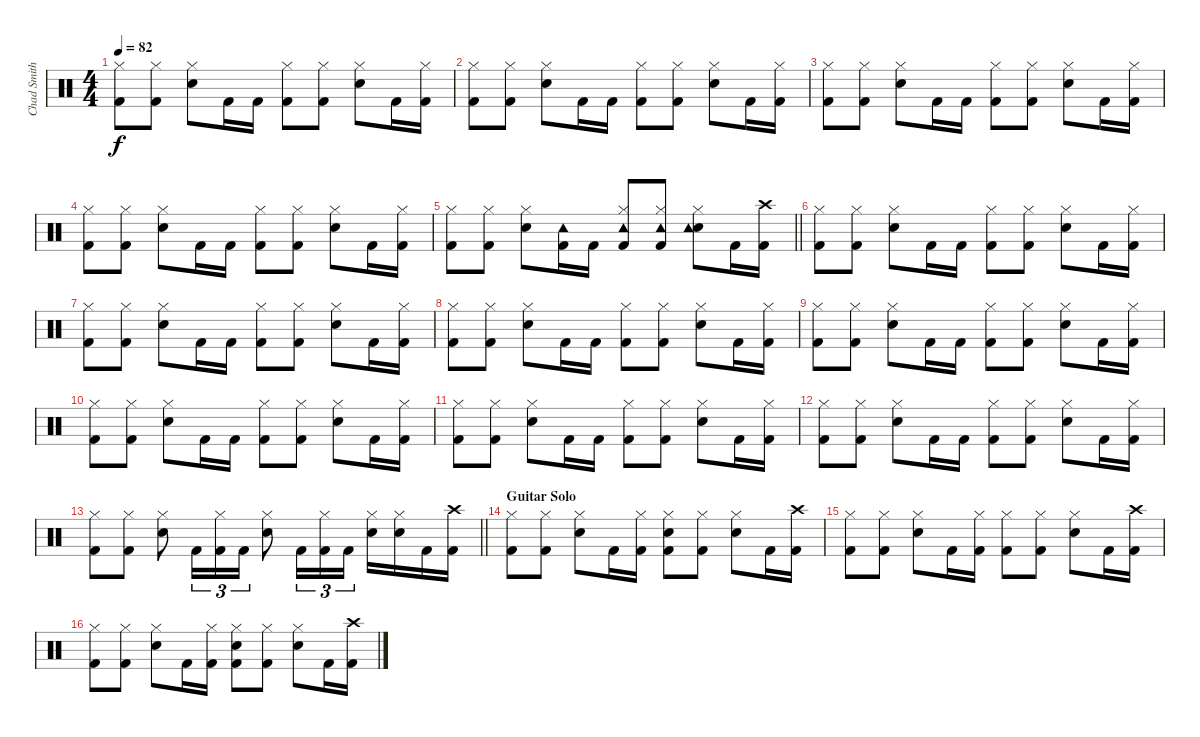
\track ("Chad Smith Drum" "Chad Smith") {instrument percussion}
\staff {score}
\articulation defaults
\ts (4 4)
\tempo 82
\clef neutral
\ks c
("Kick (hit) 2" "Hi-Hat (closed)").8{dy f} ("Kick (hit) 2" "Hi-Hat (closed)").8 ("Snare (hit) 2" "Hi-Hat (closed)").8 "Kick (hit) 2".16 "Kick (hit) 2".16 ("Kick (hit) 2" "Hi-Hat (closed)").8 ("Kick (hit) 2" "Hi-Hat (closed)").8 ("Snare (hit) 2" "Hi-Hat (closed)").8 "Kick (hit) 2".16 ("Kick (hit) 2" "Hi-Hat (closed)").16 |
("Kick (hit) 2" "Hi-Hat (closed)").8 ("Kick (hit) 2" "Hi-Hat (closed)").8 ("Snare (hit) 2" "Hi-Hat (closed)").8 "Kick (hit) 2".16 "Kick (hit) 2".16 ("Kick (hit) 2" "Hi-Hat (closed)").8 ("Kick (hit) 2" "Hi-Hat (closed)").8 ("Snare (hit) 2" "Hi-Hat (closed)").8 "Kick (hit) 2".16 ("Kick (hit) 2" "Hi-Hat (closed)").16 |
("Kick (hit) 2" "Hi-Hat (closed)").8 ("Kick (hit) 2" "Hi-Hat (closed)").8 ("Snare (hit) 2" "Hi-Hat (closed)").8 "Kick (hit) 2".16 "Kick (hit) 2".16 ("Kick (hit) 2" "Hi-Hat (closed)").8 ("Kick (hit) 2" "Hi-Hat (closed)").8 ("Snare (hit) 2" "Hi-Hat (closed)").8 "Kick (hit) 2".16 ("Kick (hit) 2" "Hi-Hat (closed)").16 |
("Kick (hit) 2" "Hi-Hat (closed)").8 ("Kick (hit) 2" "Hi-Hat (closed)").8 ("Snare (hit) 2" "Hi-Hat (closed)").8 "Kick (hit) 2".16 "Kick (hit) 2".16 ("Kick (hit) 2" "Hi-Hat (closed)").8 ("Kick (hit) 2" "Hi-Hat (closed)").8 ("Snare (hit) 2" "Hi-Hat (closed)").8 "Kick (hit) 2".16 ("Kick (hit) 2" "Hi-Hat (closed)").16 |
\barLineRight lightlight
("Kick (hit) 2" "Hi-Hat (closed)").8 ("Kick (hit) 2" "Hi-Hat (closed)").8 ("Snare (hit) 2" "Hi-Hat (closed)").8 ("Kick (hit) 2" "Tambourine (hit)").16 "Kick (hit) 2".16 ("Kick (hit) 2" "Hi-Hat (closed)" "Tambourine (hit)").8 ("Kick (hit) 2" "Hi-Hat (closed)" "Tambourine (hit)").8 ("Snare (hit) 2" "Hi-Hat (closed)" "Tambourine (hit)").8 "Kick (hit) 2".16 ("Kick (hit) 2" "Crash high (hit)").16 |
("Kick (hit) 2" "Hi-Hat (closed)").8 ("Kick (hit) 2" "Hi-Hat (closed)").8 ("Snare (hit) 2" "Hi-Hat (closed)").8 "Kick (hit) 2".16 "Kick (hit) 2".16 ("Kick (hit) 2" "Hi-Hat (closed)").8 ("Kick (hit) 2" "Hi-Hat (closed)").8 ("Snare (hit) 2" "Hi-Hat (closed)").8 "Kick (hit) 2".16 ("Kick (hit) 2" "Hi-Hat (closed)").16 |
("Kick (hit) 2" "Hi-Hat (closed)").8 ("Kick (hit) 2" "Hi-Hat (closed)").8 ("Snare (hit) 2" "Hi-Hat (closed)").8 "Kick (hit) 2".16 "Kick (hit) 2".16 ("Kick (hit) 2" "Hi-Hat (closed)").8 ("Kick (hit) 2" "Hi-Hat (closed)").8 ("Snare (hit) 2" "Hi-Hat (closed)").8 "Kick (hit) 2".16 ("Kick (hit) 2" "Hi-Hat (closed)").16 |
("Kick (hit) 2" "Hi-Hat (closed)").8 ("Kick (hit) 2" "Hi-Hat (closed)").8 ("Snare (hit) 2" "Hi-Hat (closed)").8 "Kick (hit) 2".16 "Kick (hit) 2".16 ("Kick (hit) 2" "Hi-Hat (closed)").8 ("Kick (hit) 2" "Hi-Hat (closed)").8 ("Snare (hit) 2" "Hi-Hat (closed)").8 "Kick (hit) 2".16 ("Kick (hit) 2" "Hi-Hat (closed)").16 |
("Kick (hit) 2" "Hi-Hat (closed)").8 ("Kick (hit) 2" "Hi-Hat (closed)").8 ("Snare (hit) 2" "Hi-Hat (closed)").8 "Kick (hit) 2".16 "Kick (hit) 2".16 ("Kick (hit) 2" "Hi-Hat (closed)").8 ("Kick (hit) 2" "Hi-Hat (closed)").8 ("Snare (hit) 2" "Hi-Hat (closed)").8 "Kick (hit) 2".16 ("Kick (hit) 2" "Hi-Hat (closed)").16 |
("Kick (hit) 2" "Hi-Hat (closed)").8 ("Kick (hit) 2" "Hi-Hat (closed)").8 ("Snare (hit) 2" "Hi-Hat (closed)").8 "Kick (hit) 2".16 "Kick (hit) 2".16 ("Kick (hit) 2" "Hi-Hat (closed)").8 ("Kick (hit) 2" "Hi-Hat (closed)").8 ("Snare (hit) 2" "Hi-Hat (closed)").8 "Kick (hit) 2".16 ("Kick (hit) 2" "Hi-Hat (closed)").16 |
("Kick (hit) 2" "Hi-Hat (closed)").8 ("Kick (hit) 2" "Hi-Hat (closed)").8 ("Snare (hit) 2" "Hi-Hat (closed)").8 "Kick (hit) 2".16 "Kick (hit) 2".16 ("Kick (hit) 2" "Hi-Hat (closed)").8 ("Kick (hit) 2" "Hi-Hat (closed)").8 ("Snare (hit) 2" "Hi-Hat (closed)").8 "Kick (hit) 2".16 ("Kick (hit) 2" "Hi-Hat (closed)").16 |
("Kick (hit) 2" "Hi-Hat (closed)").8 ("Kick (hit) 2" "Hi-Hat (closed)").8 ("Snare (hit) 2" "Hi-Hat (closed)").8 "Kick (hit) 2".16 "Kick (hit) 2".16 ("Kick (hit) 2" "Hi-Hat (closed)").8 ("Kick (hit) 2" "Hi-Hat (closed)").8 ("Snare (hit) 2" "Hi-Hat (closed)").8 "Kick (hit) 2".16 ("Kick (hit) 2" "Hi-Hat (closed)").16 |
\barLineRight lightlight
("Kick (hit) 2" "Hi-Hat (closed)").8 ("Kick (hit) 2" "Hi-Hat (closed)").8 ("Snare (hit) 2" "Hi-Hat (closed)").8 "Kick (hit) 2".16{tu (3 2)} ("Kick (hit) 2" "Hi-Hat (closed)").16{tu (3 2)} "Kick (hit) 2".16{tu (3 2)} ("Snare (hit) 2" "Hi-Hat (closed)").8 "Kick (hit) 2".16{tu (3 2)} ("Kick (hit) 2" "Hi-Hat (closed)").16{tu (3 2)} "Kick (hit) 2".16{tu (3 2)} ("Snare (hit) 2" "Hi-Hat (closed)").16 ("Snare (hit) 2" "Hi-Hat (closed)").16 "Kick (hit) 2".16 ("Kick (hit) 2" "Crash high (hit)").16 |
\section ("" "Guitar Solo")
("Kick (hit) 2" "Hi-Hat (closed)").8 ("Kick (hit) 2" "Hi-Hat (closed)").8 ("Snare (hit) 2" "Hi-Hat (closed)").8 "Kick (hit) 2".16 ("Kick (hit) 2" "Hi-Hat (closed)").16 ("Kick (hit) 2" "Hi-Hat (closed)" "Snare (hit) 2").8 ("Kick (hit) 2" "Hi-Hat (closed)").8 ("Snare (hit) 2" "Hi-Hat (closed)").8 "Kick (hit) 2".16 ("Kick (hit) 2" "Crash high (hit)").16 |
("Kick (hit) 2" "Hi-Hat (closed)").8 ("Kick (hit) 2" "Hi-Hat (closed)").8 ("Snare (hit) 2" "Hi-Hat (closed)").8 "Kick (hit) 2".16 ("Kick (hit) 2" "Hi-Hat (closed)").16 ("Kick (hit) 2" "Hi-Hat (closed)").8 ("Kick (hit) 2" "Hi-Hat (closed)").8 ("Snare (hit) 2" "Hi-Hat (closed)").8 "Kick (hit) 2".16 ("Kick (hit) 2" "Crash high (hit)").16 |
("Kick (hit) 2" "Hi-Hat (closed)").8 ("Kick (hit) 2" "Hi-Hat (closed)").8 ("Snare (hit) 2" "Hi-Hat (closed)").8 "Kick (hit) 2".16 ("Kick (hit) 2" "Hi-Hat (closed)").16 ("Kick (hit) 2" "Hi-Hat (closed)" "Snare (hit) 2").8 ("Kick (hit) 2" "Hi-Hat (closed)").8 ("Snare (hit) 2" "Hi-Hat (closed)").8 "Kick (hit) 2".16 ("Kick (hit) 2" "Crash high (hit)").16
